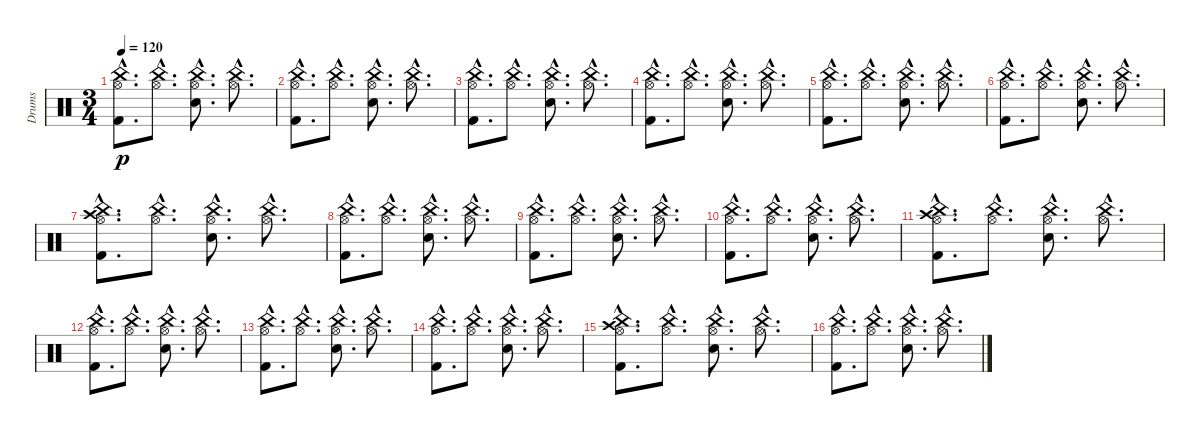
\track ("Drums" "Drums") {instrument percussion}
\staff {score}
\articulation defaults
\ts (3 4)
\tempo 120
\clef neutral
\ks c
("China (hit)"{hac} "Hi-Hat (open)"{hac} "Kick (hit) 2"{hac}).8{d dy p} ("China (hit)"{hac} "Hi-Hat (open)"{hac}).8{d} ("China (hit)"{hac} "Hi-Hat (open)"{hac} "Electric Snare (hit)"{hac}).8{d} ("China (hit)"{hac} "Hi-Hat (open)"{hac}).8{d} |
("China (hit)"{hac} "Hi-Hat (open)"{hac} "Kick (hit) 2"{hac}).8{d} ("China (hit)"{hac} "Hi-Hat (open)"{hac}).8{d} ("China (hit)"{hac} "Hi-Hat (open)"{hac} "Electric Snare (hit)"{hac}).8{d} ("China (hit)"{hac} "Hi-Hat (open)"{hac}).8{d} |
("China (hit)"{hac} "Hi-Hat (open)"{hac} "Kick (hit) 2"{hac}).8{d} ("China (hit)"{hac} "Hi-Hat (open)"{hac}).8{d} ("China (hit)"{hac} "Hi-Hat (open)"{hac} "Electric Snare (hit)"{hac}).8{d} ("China (hit)"{hac} "Hi-Hat (open)"{hac}).8{d} |
("China (hit)"{hac} "Hi-Hat (open)"{hac} "Kick (hit) 2"{hac}).8{d} ("China (hit)"{hac} "Hi-Hat (open)"{hac}).8{d} ("China (hit)"{hac} "Hi-Hat (open)"{hac} "Electric Snare (hit)"{hac}).8{d} ("China (hit)"{hac} "Hi-Hat (open)"{hac}).8{d} |
("China (hit)"{hac} "Hi-Hat (open)"{hac} "Kick (hit) 2"{hac}).8{d} ("China (hit)"{hac} "Hi-Hat (open)"{hac}).8{d} ("China (hit)"{hac} "Hi-Hat (open)"{hac} "Electric Snare (hit)"{hac}).8{d} ("China (hit)"{hac} "Hi-Hat (open)"{hac}).8{d} |
("China (hit)"{hac} "Hi-Hat (open)"{hac} "Kick (hit) 2"{hac}).8{d} ("China (hit)"{hac} "Hi-Hat (open)"{hac}).8{d} ("China (hit)"{hac} "Hi-Hat (open)"{hac} "Electric Snare (hit)"{hac}).8{d} ("China (hit)"{hac} "Hi-Hat (open)"{hac}).8{d} |
("Crash high (hit)"{hac} "China (hit)"{hac} "Hi-Hat (open)"{hac} "Kick (hit) 2"{hac}).8{d} ("China (hit)"{hac} "Hi-Hat (open)"{hac}).8{d} ("China (hit)"{hac} "Hi-Hat (open)"{hac} "Electric Snare (hit)"{hac}).8{d} ("China (hit)"{hac} "Hi-Hat (open)"{hac}).8{d} |
("China (hit)"{hac} "Hi-Hat (open)"{hac} "Kick (hit) 2"{hac}).8{d} ("China (hit)"{hac} "Hi-Hat (open)"{hac}).8{d} ("China (hit)"{hac} "Hi-Hat (open)"{hac} "Electric Snare (hit)"{hac}).8{d} ("China (hit)"{hac} "Hi-Hat (open)"{hac}).8{d} |
("China (hit)"{hac} "Hi-Hat (open)"{hac} "Kick (hit) 2"{hac}).8{d} ("China (hit)"{hac} "Hi-Hat (open)"{hac}).8{d} ("China (hit)"{hac} "Hi-Hat (open)"{hac} "Electric Snare (hit)"{hac}).8{d} ("China (hit)"{hac} "Hi-Hat (open)"{hac}).8{d} |
("China (hit)"{hac} "Hi-Hat (open)"{hac} "Kick (hit) 2"{hac}).8{d} ("China (hit)"{hac} "Hi-Hat (open)"{hac}).8{d} ("China (hit)"{hac} "Hi-Hat (open)"{hac} "Electric Snare (hit)"{hac}).8{d} ("China (hit)"{hac} "Hi-Hat (open)"{hac}).8{d} |
("Crash high (hit)"{hac} "China (hit)"{hac} "Hi-Hat (open)"{hac} "Kick (hit) 2"{hac}).8{d} ("China (hit)"{hac} "Hi-Hat (open)"{hac}).8{d} ("China (hit)"{hac} "Hi-Hat (open)"{hac} "Electric Snare (hit)"{hac}).8{d} ("China (hit)"{hac} "Hi-Hat (open)"{hac}).8{d} |
("China (hit)"{hac} "Hi-Hat (open)"{hac} "Kick (hit) 2"{hac}).8{d} ("China (hit)"{hac} "Hi-Hat (open)"{hac}).8{d} ("China (hit)"{hac} "Hi-Hat (open)"{hac} "Electric Snare (hit)"{hac}).8{d} ("China (hit)"{hac} "Hi-Hat (open)"{hac}).8{d} |
("China (hit)"{hac} "Hi-Hat (open)"{hac} "Kick (hit) 2"{hac}).8{d} ("China (hit)"{hac} "Hi-Hat (open)"{hac}).8{d} ("China (hit)"{hac} "Hi-Hat (open)"{hac} "Electric Snare (hit)"{hac}).8{d} ("China (hit)"{hac} "Hi-Hat (open)"{hac}).8{d} |
("China (hit)"{hac} "Hi-Hat (open)"{hac} "Kick (hit) 2"{hac}).8{d} ("China (hit)"{hac} "Hi-Hat (open)"{hac}).8{d} ("China (hit)"{hac} "Hi-Hat (open)"{hac} "Electric Snare (hit)"{hac}).8{d} ("China (hit)"{hac} "Hi-Hat (open)"{hac}).8{d} |
("Crash high (hit)"{hac} "China (hit)"{hac} "Hi-Hat (open)"{hac} "Kick (hit) 2"{hac}).8{d} ("China (hit)"{hac} "Hi-Hat (open)"{hac}).8{d} ("China (hit)"{hac} "Hi-Hat (open)"{hac} "Electric Snare (hit)"{hac}).8{d} ("China (hit)"{hac} "Hi-Hat (open)"{hac}).8{d} |
("China (hit)"{hac} "Hi-Hat (open)"{hac} "Kick (hit) 2"{hac}).8{d} ("China (hit)"{hac} "Hi-Hat (open)"{hac}).8{d} ("China (hit)"{hac} "Hi-Hat (open)"{hac} "Electric Snare (hit)"{hac}).8{d} ("China (hit)"{hac} "Hi-Hat (open)"{hac}).8{d}
